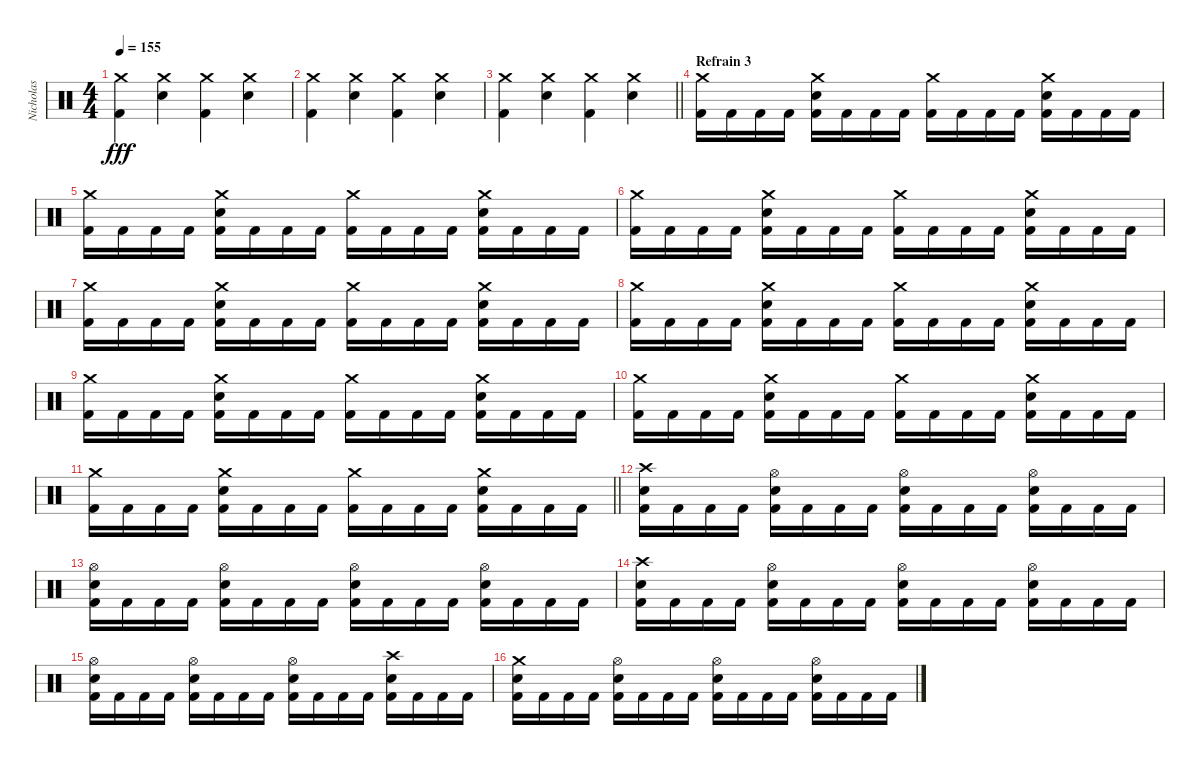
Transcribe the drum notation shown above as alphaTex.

\track ("Nicholas" "Nicholas") {instrument percussion}
\staff {score}
\articulation defaults
\ts (4 4)
\tempo 155
\clef neutral
\ks c
("Crash medium (hit)" "Kick (hit) 2").4{dy fff} ("Crash medium (hit)" "Electric Snare (hit)").4 ("Crash medium (hit)" "Kick (hit) 2").4 ("Crash medium (hit)" "Electric Snare (hit)").4 |
("Crash medium (hit)" "Kick (hit) 2").4 ("Crash medium (hit)" "Electric Snare (hit)").4 ("Crash medium (hit)" "Kick (hit) 2").4 ("Crash medium (hit)" "Electric Snare (hit)").4 |
\barLineRight lightlight
("Crash medium (hit)" "Kick (hit) 2").4 ("Crash medium (hit)" "Electric Snare (hit)").4 ("Crash medium (hit)" "Kick (hit) 2").4 ("Crash medium (hit)" "Electric Snare (hit)").4 |
\section ("" "Refrain 3")
("Crash medium (hit)" "Kick (hit) 2").16 "Kick (hit) 2".16 "Kick (hit) 2".16 "Kick (hit) 2".16 ("Crash medium (hit)" "Electric Snare (hit)" "Kick (hit) 2").16 "Kick (hit) 2".16 "Kick (hit) 2".16 "Kick (hit) 2".16 ("Crash medium (hit)" "Kick (hit) 2").16 "Kick (hit) 2".16 "Kick (hit) 2".16 "Kick (hit) 2".16 ("Crash medium (hit)" "Electric Snare (hit)" "Kick (hit) 2").16 "Kick (hit) 2".16 "Kick (hit) 2".16 "Kick (hit) 2".16 |
("Crash medium (hit)" "Kick (hit) 2").16 "Kick (hit) 2".16 "Kick (hit) 2".16 "Kick (hit) 2".16 ("Crash medium (hit)" "Electric Snare (hit)" "Kick (hit) 2").16 "Kick (hit) 2".16 "Kick (hit) 2".16 "Kick (hit) 2".16 ("Crash medium (hit)" "Kick (hit) 2").16 "Kick (hit) 2".16 "Kick (hit) 2".16 "Kick (hit) 2".16 ("Crash medium (hit)" "Electric Snare (hit)" "Kick (hit) 2").16 "Kick (hit) 2".16 "Kick (hit) 2".16 "Kick (hit) 2".16 |
("Crash medium (hit)" "Kick (hit) 2").16 "Kick (hit) 2".16 "Kick (hit) 2".16 "Kick (hit) 2".16 ("Crash medium (hit)" "Electric Snare (hit)" "Kick (hit) 2").16 "Kick (hit) 2".16 "Kick (hit) 2".16 "Kick (hit) 2".16 ("Crash medium (hit)" "Kick (hit) 2").16 "Kick (hit) 2".16 "Kick (hit) 2".16 "Kick (hit) 2".16 ("Crash medium (hit)" "Electric Snare (hit)" "Kick (hit) 2").16 "Kick (hit) 2".16 "Kick (hit) 2".16 "Kick (hit) 2".16 |
("Crash medium (hit)" "Kick (hit) 2").16 "Kick (hit) 2".16 "Kick (hit) 2".16 "Kick (hit) 2".16 ("Crash medium (hit)" "Electric Snare (hit)" "Kick (hit) 2").16 "Kick (hit) 2".16 "Kick (hit) 2".16 "Kick (hit) 2".16 ("Crash medium (hit)" "Kick (hit) 2").16 "Kick (hit) 2".16 "Kick (hit) 2".16 "Kick (hit) 2".16 ("Crash medium (hit)" "Electric Snare (hit)" "Kick (hit) 2").16 "Kick (hit) 2".16 "Kick (hit) 2".16 "Kick (hit) 2".16 |
("Crash medium (hit)" "Kick (hit) 2").16 "Kick (hit) 2".16 "Kick (hit) 2".16 "Kick (hit) 2".16 ("Crash medium (hit)" "Electric Snare (hit)" "Kick (hit) 2").16 "Kick (hit) 2".16 "Kick (hit) 2".16 "Kick (hit) 2".16 ("Crash medium (hit)" "Kick (hit) 2").16 "Kick (hit) 2".16 "Kick (hit) 2".16 "Kick (hit) 2".16 ("Crash medium (hit)" "Electric Snare (hit)" "Kick (hit) 2").16 "Kick (hit) 2".16 "Kick (hit) 2".16 "Kick (hit) 2".16 |
("Crash medium (hit)" "Kick (hit) 2").16 "Kick (hit) 2".16 "Kick (hit) 2".16 "Kick (hit) 2".16 ("Crash medium (hit)" "Electric Snare (hit)" "Kick (hit) 2").16 "Kick (hit) 2".16 "Kick (hit) 2".16 "Kick (hit) 2".16 ("Crash medium (hit)" "Kick (hit) 2").16 "Kick (hit) 2".16 "Kick (hit) 2".16 "Kick (hit) 2".16 ("Crash medium (hit)" "Electric Snare (hit)" "Kick (hit) 2").16 "Kick (hit) 2".16 "Kick (hit) 2".16 "Kick (hit) 2".16 |
("Crash medium (hit)" "Kick (hit) 2").16 "Kick (hit) 2".16 "Kick (hit) 2".16 "Kick (hit) 2".16 ("Crash medium (hit)" "Electric Snare (hit)" "Kick (hit) 2").16 "Kick (hit) 2".16 "Kick (hit) 2".16 "Kick (hit) 2".16 ("Crash medium (hit)" "Kick (hit) 2").16 "Kick (hit) 2".16 "Kick (hit) 2".16 "Kick (hit) 2".16 ("Crash medium (hit)" "Electric Snare (hit)" "Kick (hit) 2").16 "Kick (hit) 2".16 "Kick (hit) 2".16 "Kick (hit) 2".16 |
\barLineRight lightlight
("Crash medium (hit)" "Kick (hit) 2").16 "Kick (hit) 2".16 "Kick (hit) 2".16 "Kick (hit) 2".16 ("Crash medium (hit)" "Electric Snare (hit)" "Kick (hit) 2").16 "Kick (hit) 2".16 "Kick (hit) 2".16 "Kick (hit) 2".16 ("Crash medium (hit)" "Kick (hit) 2").16 "Kick (hit) 2".16 "Kick (hit) 2".16 "Kick (hit) 2".16 ("Crash medium (hit)" "Electric Snare (hit)" "Kick (hit) 2").16 "Kick (hit) 2".16 "Kick (hit) 2".16 "Kick (hit) 2".16 |
("Crash high (hit)" "Electric Snare (hit)" "Kick (hit) 2").16 "Kick (hit) 2".16 "Kick (hit) 2".16 "Kick (hit) 2".16 ("Hi-Hat (open)" "Electric Snare (hit)" "Kick (hit) 2").16 "Kick (hit) 2".16 "Kick (hit) 2".16 "Kick (hit) 2".16 ("Hi-Hat (open)" "Electric Snare (hit)" "Kick (hit) 2").16 "Kick (hit) 2".16 "Kick (hit) 2".16 "Kick (hit) 2".16 ("Hi-Hat (open)" "Electric Snare (hit)" "Kick (hit) 2").16 "Kick (hit) 2".16 "Kick (hit) 2".16 "Kick (hit) 2".16 |
("Hi-Hat (open)" "Electric Snare (hit)" "Kick (hit) 2").16 "Kick (hit) 2".16 "Kick (hit) 2".16 "Kick (hit) 2".16 ("Hi-Hat (open)" "Electric Snare (hit)" "Kick (hit) 2").16 "Kick (hit) 2".16 "Kick (hit) 2".16 "Kick (hit) 2".16 ("Hi-Hat (open)" "Electric Snare (hit)" "Kick (hit) 2").16 "Kick (hit) 2".16 "Kick (hit) 2".16 "Kick (hit) 2".16 ("Hi-Hat (open)" "Electric Snare (hit)" "Kick (hit) 2").16 "Kick (hit) 2".16 "Kick (hit) 2".16 "Kick (hit) 2".16 |
("Crash high (hit)" "Electric Snare (hit)" "Kick (hit) 2").16 "Kick (hit) 2".16 "Kick (hit) 2".16 "Kick (hit) 2".16 ("Hi-Hat (open)" "Electric Snare (hit)" "Kick (hit) 2").16 "Kick (hit) 2".16 "Kick (hit) 2".16 "Kick (hit) 2".16 ("Hi-Hat (open)" "Electric Snare (hit)" "Kick (hit) 2").16 "Kick (hit) 2".16 "Kick (hit) 2".16 "Kick (hit) 2".16 ("Hi-Hat (open)" "Electric Snare (hit)" "Kick (hit) 2").16 "Kick (hit) 2".16 "Kick (hit) 2".16 "Kick (hit) 2".16 |
("Hi-Hat (open)" "Electric Snare (hit)" "Kick (hit) 2").16 "Kick (hit) 2".16 "Kick (hit) 2".16 "Kick (hit) 2".16 ("Hi-Hat (open)" "Electric Snare (hit)" "Kick (hit) 2").16 "Kick (hit) 2".16 "Kick (hit) 2".16 "Kick (hit) 2".16 ("Hi-Hat (open)" "Electric Snare (hit)" "Kick (hit) 2").16 "Kick (hit) 2".16 "Kick (hit) 2".16 "Kick (hit) 2".16 ("Crash high (hit)" "Electric Snare (hit)" "Kick (hit) 2").16 "Kick (hit) 2".16 "Kick (hit) 2".16 "Kick (hit) 2".16 |
("Crash medium (hit)" "Electric Snare (hit)" "Kick (hit) 2").16 "Kick (hit) 2".16 "Kick (hit) 2".16 "Kick (hit) 2".16 ("Hi-Hat (open)" "Electric Snare (hit)" "Kick (hit) 2").16 "Kick (hit) 2".16 "Kick (hit) 2".16 "Kick (hit) 2".16 ("Hi-Hat (open)" "Electric Snare (hit)" "Kick (hit) 2").16 "Kick (hit) 2".16 "Kick (hit) 2".16 "Kick (hit) 2".16 ("Hi-Hat (open)" "Electric Snare (hit)" "Kick (hit) 2").16 "Kick (hit) 2".16 "Kick (hit) 2".16 "Kick (hit) 2".16
